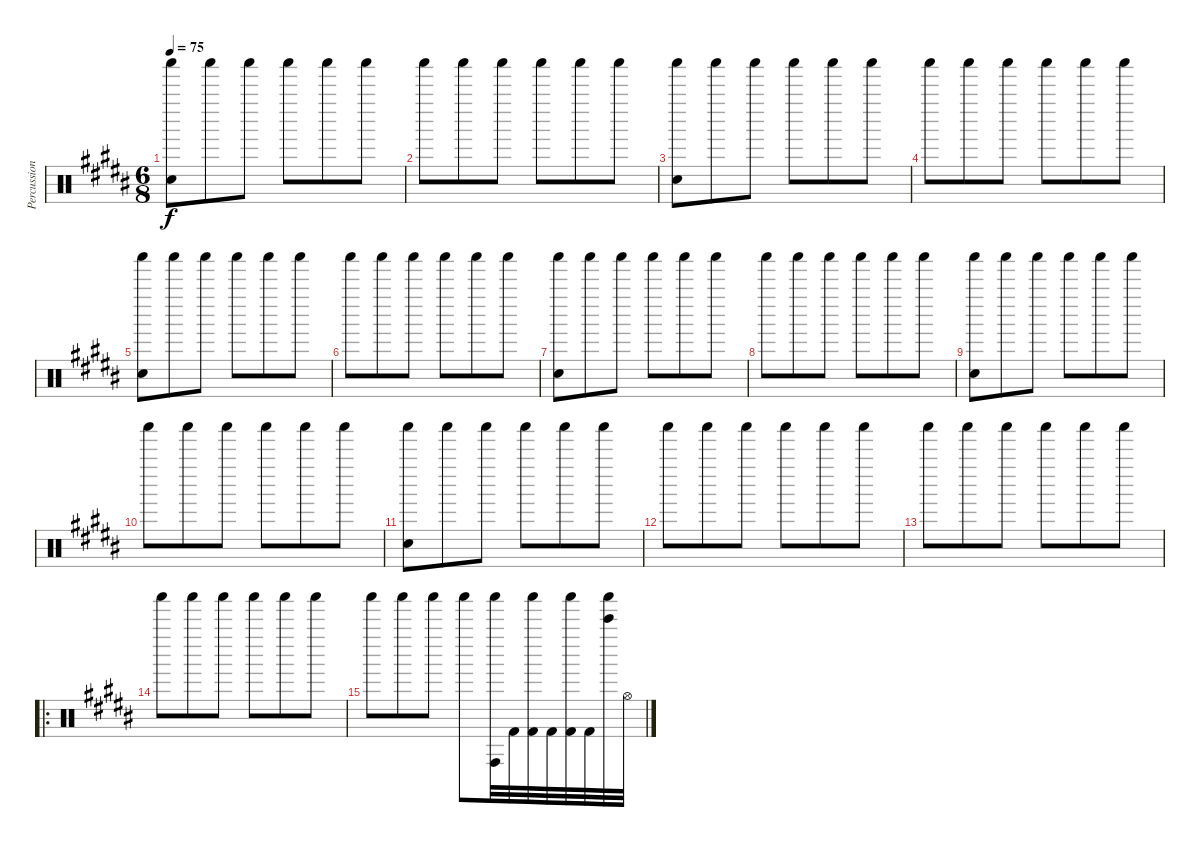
\track ("Percussion" "Percussion") {instrument percussion}
\staff {score}
\articulation defaults
\ts (6 8)
\tempo 75
\clef neutral
\ks b
("Shaker (hit)" "Hand Clap (hit)").8{dy f} "Shaker (hit)".8 "Shaker (hit)".8 "Shaker (hit)".8 "Shaker (hit)".8 "Shaker (hit)".8 |
"Shaker (hit)".8 "Shaker (hit)".8 "Shaker (hit)".8 "Shaker (hit)".8 "Shaker (hit)".8 "Shaker (hit)".8 |
("Shaker (hit)" "Hand Clap (hit)").8 "Shaker (hit)".8 "Shaker (hit)".8 "Shaker (hit)".8 "Shaker (hit)".8 "Shaker (hit)".8 |
"Shaker (hit)".8 "Shaker (hit)".8 "Shaker (hit)".8 "Shaker (hit)".8 "Shaker (hit)".8 "Shaker (hit)".8 |
("Shaker (hit)" "Hand Clap (hit)").8 "Shaker (hit)".8 "Shaker (hit)".8 "Shaker (hit)".8 "Shaker (hit)".8 "Shaker (hit)".8 |
"Shaker (hit)".8 "Shaker (hit)".8 "Shaker (hit)".8 "Shaker (hit)".8 "Shaker (hit)".8 "Shaker (hit)".8 |
("Shaker (hit)" "Hand Clap (hit)").8 "Shaker (hit)".8 "Shaker (hit)".8 "Shaker (hit)".8 "Shaker (hit)".8 "Shaker (hit)".8 |
"Shaker (hit)".8 "Shaker (hit)".8 "Shaker (hit)".8 "Shaker (hit)".8 "Shaker (hit)".8 "Shaker (hit)".8 |
("Shaker (hit)" "Hand Clap (hit)").8 "Shaker (hit)".8 "Shaker (hit)".8 "Shaker (hit)".8 "Shaker (hit)".8 "Shaker (hit)".8 |
"Shaker (hit)".8 "Shaker (hit)".8 "Shaker (hit)".8 "Shaker (hit)".8 "Shaker (hit)".8 "Shaker (hit)".8 |
("Shaker (hit)" "Hand Clap (hit)").8 "Shaker (hit)".8 "Shaker (hit)".8 "Shaker (hit)".8 "Shaker (hit)".8 "Shaker (hit)".8 |
"Shaker (hit)".8 "Shaker (hit)".8 "Shaker (hit)".8 "Shaker (hit)".8 "Shaker (hit)".8 "Shaker (hit)".8 |
"Shaker (hit)".8 "Shaker (hit)".8 "Shaker (hit)".8 "Shaker (hit)".8 "Shaker (hit)".8 "Shaker (hit)".8 |
\ro "Shaker (hit)".8 "Shaker (hit)".8 "Shaker (hit)".8 "Shaker (hit)".8 "Shaker (hit)".8 "Shaker (hit)".8
|
"Shaker (hit)".8 "Shaker (hit)".8 "Shaker (hit)".8 "Shaker (hit)".8 ("Shaker (hit)" "Conga high (hit)").32 "Kick (hit) 2".32 ("Shaker (hit)" "Kick (hit) 2").32 "Kick (hit) 2".32 ("Shaker (hit)" "Kick (hit) 2").32 "Kick (hit) 2".32 ("Shaker (hit)" "Bell Tree (hit)").32 "Hi-Hat (open)".32
